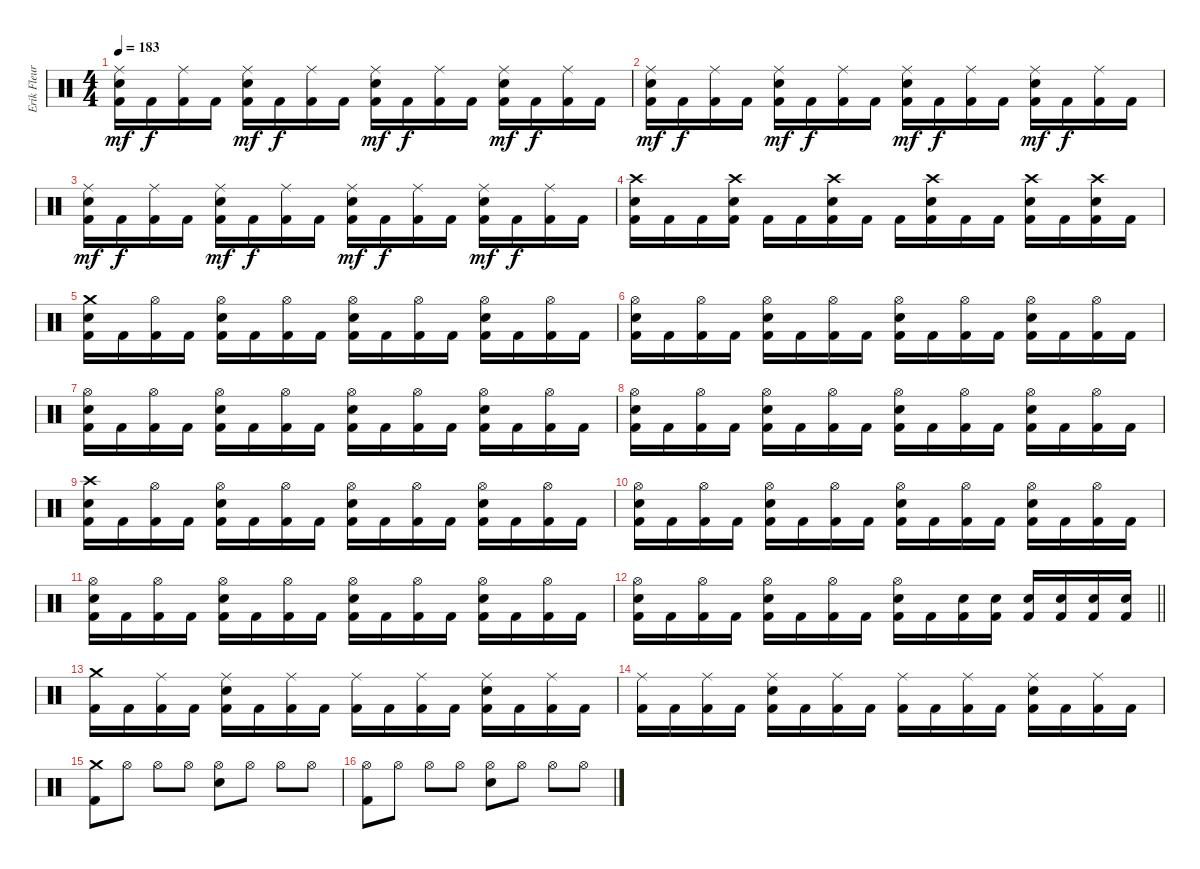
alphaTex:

\track ("Erik Fleuren" "Erik Fleur") {instrument percussion}
\staff {score}
\articulation defaults
\ts (4 4)
\tempo 183
\clef neutral
\ks c
("Ride (middle)" "Electric Snare (hit)" "Kick (hit) 2").16{dy mf} "Kick (hit) 2".16{dy f} ("Ride (middle)" "Kick (hit) 2").16 "Kick (hit) 2".16 ("Ride (middle)" "Electric Snare (hit)" "Kick (hit) 2").16{dy mf} "Kick (hit) 2".16{dy f} ("Ride (middle)" "Kick (hit) 2").16 "Kick (hit) 2".16 ("Ride (middle)" "Electric Snare (hit)" "Kick (hit) 2").16{dy mf} "Kick (hit) 2".16{dy f} ("Ride (middle)" "Kick (hit) 2").16 "Kick (hit) 2".16 ("Ride (middle)" "Electric Snare (hit)" "Kick (hit) 2").16{dy mf} "Kick (hit) 2".16{dy f} ("Ride (middle)" "Kick (hit) 2").16 "Kick (hit) 2".16 |
("Ride (middle)" "Electric Snare (hit)" "Kick (hit) 2").16{dy mf} "Kick (hit) 2".16{dy f} ("Ride (middle)" "Kick (hit) 2").16 "Kick (hit) 2".16 ("Ride (middle)" "Electric Snare (hit)" "Kick (hit) 2").16{dy mf} "Kick (hit) 2".16{dy f} ("Ride (middle)" "Kick (hit) 2").16 "Kick (hit) 2".16 ("Ride (middle)" "Electric Snare (hit)" "Kick (hit) 2").16{dy mf} "Kick (hit) 2".16{dy f} ("Ride (middle)" "Kick (hit) 2").16 "Kick (hit) 2".16 ("Ride (middle)" "Electric Snare (hit)" "Kick (hit) 2").16{dy mf} "Kick (hit) 2".16{dy f} ("Ride (middle)" "Kick (hit) 2").16 "Kick (hit) 2".16 |
("Ride (middle)" "Electric Snare (hit)" "Kick (hit) 2").16{dy mf} "Kick (hit) 2".16{dy f} ("Ride (middle)" "Kick (hit) 2").16 "Kick (hit) 2".16 ("Ride (middle)" "Electric Snare (hit)" "Kick (hit) 2").16{dy mf} "Kick (hit) 2".16{dy f} ("Ride (middle)" "Kick (hit) 2").16 "Kick (hit) 2".16 ("Ride (middle)" "Electric Snare (hit)" "Kick (hit) 2").16{dy mf} "Kick (hit) 2".16{dy f} ("Ride (middle)" "Kick (hit) 2").16 "Kick (hit) 2".16 ("Ride (middle)" "Electric Snare (hit)" "Kick (hit) 2").16{dy mf} "Kick (hit) 2".16{dy f} ("Ride (middle)" "Kick (hit) 2").16 "Kick (hit) 2".16 |
("Crash high (hit)" "Electric Snare (hit)" "Kick (hit) 2").16 "Kick (hit) 2".16 "Kick (hit) 2".16 ("Crash high (hit)" "Electric Snare (hit)" "Kick (hit) 2").16 "Kick (hit) 2".16 "Kick (hit) 2".16 ("Crash high (hit)" "Electric Snare (hit)" "Kick (hit) 2").16 "Kick (hit) 2".16 "Kick (hit) 2".16 ("Crash high (hit)" "Electric Snare (hit)" "Kick (hit) 2").16 "Kick (hit) 2".16 "Kick (hit) 2".16 ("Crash high (hit)" "Electric Snare (hit)" "Kick (hit) 2").16 "Kick (hit) 2".16 ("Crash high (hit)" "Electric Snare (hit)" "Kick (hit) 2").16 "Kick (hit) 2".16 |
("Crash medium (hit)" "Electric Snare (hit)" "Kick (hit) 2").16 "Kick (hit) 2".16 ("Hi-Hat (open)" "Kick (hit) 2").16 "Kick (hit) 2".16 ("Hi-Hat (open)" "Electric Snare (hit)" "Kick (hit) 2").16 "Kick (hit) 2".16 ("Hi-Hat (open)" "Kick (hit) 2").16 "Kick (hit) 2".16 ("Hi-Hat (open)" "Electric Snare (hit)" "Kick (hit) 2").16 "Kick (hit) 2".16 ("Hi-Hat (open)" "Kick (hit) 2").16 "Kick (hit) 2".16 ("Hi-Hat (open)" "Electric Snare (hit)" "Kick (hit) 2").16 "Kick (hit) 2".16 ("Hi-Hat (open)" "Kick (hit) 2").16 "Kick (hit) 2".16 |
("Hi-Hat (open)" "Electric Snare (hit)" "Kick (hit) 2").16 "Kick (hit) 2".16 ("Hi-Hat (open)" "Kick (hit) 2").16 "Kick (hit) 2".16 ("Hi-Hat (open)" "Electric Snare (hit)" "Kick (hit) 2").16 "Kick (hit) 2".16 ("Hi-Hat (open)" "Kick (hit) 2").16 "Kick (hit) 2".16 ("Hi-Hat (open)" "Electric Snare (hit)" "Kick (hit) 2").16 "Kick (hit) 2".16 ("Hi-Hat (open)" "Kick (hit) 2").16 "Kick (hit) 2".16 ("Hi-Hat (open)" "Electric Snare (hit)" "Kick (hit) 2").16 "Kick (hit) 2".16 ("Hi-Hat (open)" "Kick (hit) 2").16 "Kick (hit) 2".16 |
("Hi-Hat (open)" "Electric Snare (hit)" "Kick (hit) 2").16 "Kick (hit) 2".16 ("Hi-Hat (open)" "Kick (hit) 2").16 "Kick (hit) 2".16 ("Hi-Hat (open)" "Electric Snare (hit)" "Kick (hit) 2").16 "Kick (hit) 2".16 ("Hi-Hat (open)" "Kick (hit) 2").16 "Kick (hit) 2".16 ("Hi-Hat (open)" "Electric Snare (hit)" "Kick (hit) 2").16 "Kick (hit) 2".16 ("Hi-Hat (open)" "Kick (hit) 2").16 "Kick (hit) 2".16 ("Hi-Hat (open)" "Electric Snare (hit)" "Kick (hit) 2").16 "Kick (hit) 2".16 ("Hi-Hat (open)" "Kick (hit) 2").16 "Kick (hit) 2".16 |
("Hi-Hat (open)" "Electric Snare (hit)" "Kick (hit) 2").16 "Kick (hit) 2".16 ("Hi-Hat (open)" "Kick (hit) 2").16 "Kick (hit) 2".16 ("Hi-Hat (open)" "Electric Snare (hit)" "Kick (hit) 2").16 "Kick (hit) 2".16 ("Hi-Hat (open)" "Kick (hit) 2").16 "Kick (hit) 2".16 ("Hi-Hat (open)" "Electric Snare (hit)" "Kick (hit) 2").16 "Kick (hit) 2".16 ("Hi-Hat (open)" "Kick (hit) 2").16 "Kick (hit) 2".16 ("Hi-Hat (open)" "Electric Snare (hit)" "Kick (hit) 2").16 "Kick (hit) 2".16 ("Hi-Hat (open)" "Kick (hit) 2").16 "Kick (hit) 2".16 |
("Crash high (hit)" "Electric Snare (hit)" "Kick (hit) 2").16 "Kick (hit) 2".16 ("Hi-Hat (open)" "Kick (hit) 2").16 "Kick (hit) 2".16 ("Hi-Hat (open)" "Electric Snare (hit)" "Kick (hit) 2").16 "Kick (hit) 2".16 ("Hi-Hat (open)" "Kick (hit) 2").16 "Kick (hit) 2".16 ("Hi-Hat (open)" "Electric Snare (hit)" "Kick (hit) 2").16 "Kick (hit) 2".16 ("Hi-Hat (open)" "Kick (hit) 2").16 "Kick (hit) 2".16 ("Hi-Hat (open)" "Electric Snare (hit)" "Kick (hit) 2").16 "Kick (hit) 2".16 ("Hi-Hat (open)" "Kick (hit) 2").16 "Kick (hit) 2".16 |
("Hi-Hat (open)" "Electric Snare (hit)" "Kick (hit) 2").16 "Kick (hit) 2".16 ("Hi-Hat (open)" "Kick (hit) 2").16 "Kick (hit) 2".16 ("Hi-Hat (open)" "Electric Snare (hit)" "Kick (hit) 2").16 "Kick (hit) 2".16 ("Hi-Hat (open)" "Kick (hit) 2").16 "Kick (hit) 2".16 ("Hi-Hat (open)" "Electric Snare (hit)" "Kick (hit) 2").16 "Kick (hit) 2".16 ("Hi-Hat (open)" "Kick (hit) 2").16 "Kick (hit) 2".16 ("Hi-Hat (open)" "Electric Snare (hit)" "Kick (hit) 2").16 "Kick (hit) 2".16 ("Hi-Hat (open)" "Kick (hit) 2").16 "Kick (hit) 2".16 |
("Hi-Hat (open)" "Electric Snare (hit)" "Kick (hit) 2").16 "Kick (hit) 2".16 ("Hi-Hat (open)" "Kick (hit) 2").16 "Kick (hit) 2".16 ("Hi-Hat (open)" "Electric Snare (hit)" "Kick (hit) 2").16 "Kick (hit) 2".16 ("Hi-Hat (open)" "Kick (hit) 2").16 "Kick (hit) 2".16 ("Hi-Hat (open)" "Electric Snare (hit)" "Kick (hit) 2").16 "Kick (hit) 2".16 ("Hi-Hat (open)" "Kick (hit) 2").16 "Kick (hit) 2".16 ("Hi-Hat (open)" "Electric Snare (hit)" "Kick (hit) 2").16 "Kick (hit) 2".16 ("Hi-Hat (open)" "Kick (hit) 2").16 "Kick (hit) 2".16 |
\barLineRight lightlight
("Hi-Hat (open)" "Electric Snare (hit)" "Kick (hit) 2").16 "Kick (hit) 2".16 ("Hi-Hat (open)" "Kick (hit) 2").16 "Kick (hit) 2".16 ("Hi-Hat (open)" "Electric Snare (hit)" "Kick (hit) 2").16 "Kick (hit) 2".16 ("Hi-Hat (open)" "Kick (hit) 2").16 "Kick (hit) 2".16 ("Hi-Hat (open)" "Electric Snare (hit)" "Kick (hit) 2").16 "Kick (hit) 2".16 ("Electric Snare (hit)" "Kick (hit) 2").16 ("Electric Snare (hit)" "Kick (hit) 2").16 ("Electric Snare (hit)" "Kick (hit) 2").16 ("Electric Snare (hit)" "Kick (hit) 2").16 ("Electric Snare (hit)" "Kick (hit) 2").16 ("Electric Snare (hit)" "Kick (hit) 2").16 |
("Crash medium (hit)" "Kick (hit) 2").16 "Kick (hit) 2".16 ("Ride (middle)" "Kick (hit) 2").16 "Kick (hit) 2".16 ("Ride (middle)" "Electric Snare (hit)" "Kick (hit) 2").16 "Kick (hit) 2".16 ("Ride (middle)" "Kick (hit) 2").16 "Kick (hit) 2".16 ("Ride (middle)" "Kick (hit) 2").16 "Kick (hit) 2".16 ("Ride (middle)" "Kick (hit) 2").16 "Kick (hit) 2".16 ("Ride (middle)" "Electric Snare (hit)" "Kick (hit) 2").16 "Kick (hit) 2".16 ("Ride (middle)" "Kick (hit) 2").16 "Kick (hit) 2".16 |
("Ride (middle)" "Kick (hit) 2").16 "Kick (hit) 2".16 ("Ride (middle)" "Kick (hit) 2").16 "Kick (hit) 2".16 ("Ride (middle)" "Electric Snare (hit)" "Kick (hit) 2").16 "Kick (hit) 2".16 ("Ride (middle)" "Kick (hit) 2").16 "Kick (hit) 2".16 ("Ride (middle)" "Kick (hit) 2").16 "Kick (hit) 2".16 ("Ride (middle)" "Kick (hit) 2").16 "Kick (hit) 2".16 ("Ride (middle)" "Electric Snare (hit)" "Kick (hit) 2").16 "Kick (hit) 2".16 ("Ride (middle)" "Kick (hit) 2").16 "Kick (hit) 2".16 |
("Crash medium (hit)" "Kick (hit) 2").8 "Hi-Hat (open)".8 "Hi-Hat (open)".8 "Hi-Hat (open)".8 ("Hi-Hat (open)" "Electric Snare (hit)").8 "Hi-Hat (open)".8 "Hi-Hat (open)".8 "Hi-Hat (open)".8 |
("Hi-Hat (open)" "Kick (hit) 2").8 "Hi-Hat (open)".8 "Hi-Hat (open)".8 "Hi-Hat (open)".8 ("Hi-Hat (open)" "Electric Snare (hit)").8 "Hi-Hat (open)".8 "Hi-Hat (open)".8 "Hi-Hat (open)".8
